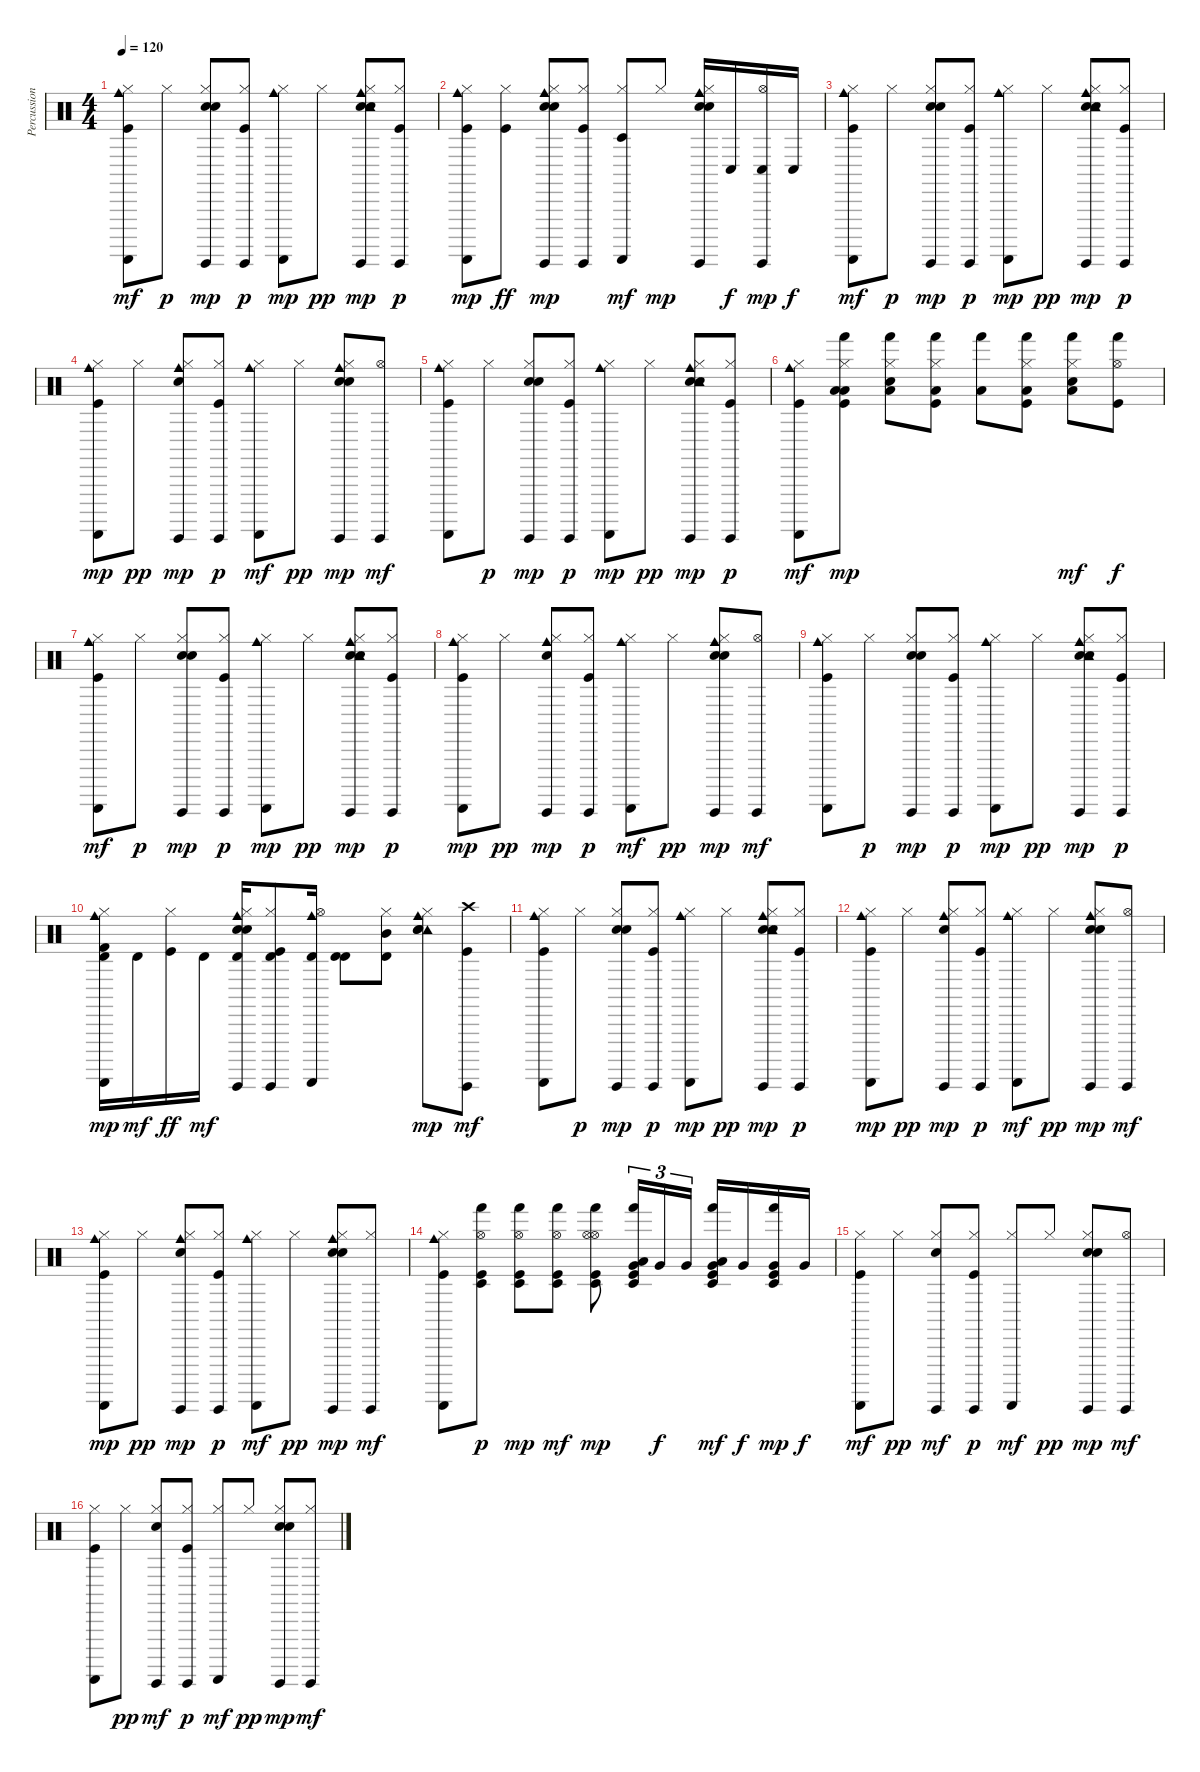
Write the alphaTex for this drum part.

\track ("Percussions" "Percussion") {instrument percussion}
\staff {score}
\articulation defaults
\ts (4 4)
\tempo 120
\clef neutral
\ks c
("Hi-Hat (closed)" "Guiro (scrap-return)" "Cowbell medium (hit)" "Kick (hit)").8{dy mf} "Hi-Hat (closed)".8{dy p} ("Hi-Hat (closed)" "Guiro (hit)" "Snare (hit) 2" "Hand Clap (hit)").8{dy mp} ("Hi-Hat (closed)" "Guiro (hit)" "Kick (hit)").8{dy p} ("Hi-Hat (closed)" "Guiro (scrap-return)" "Cowbell medium (hit)").8{dy mp} "Hi-Hat (closed)".8{dy pp} ("Hi-Hat (closed)" "Guiro (hit)" "Snare (hit) 2" "Hand Clap (hit)" "Cowbell medium (hit)" "Tambourine (hit)").8{dy mp} ("Hi-Hat (closed)" "Guiro (hit)" "Kick (hit)").8{dy p} |
("Hi-Hat (closed)" "Guiro (scrap-return)" "Cowbell medium (hit)" "Kick (hit)").8{dy mp} ("Hi-Hat (closed)" "Kick (hit)").8{dy ff} ("Hi-Hat (closed)" "Guiro (hit)" "Snare (hit) 2" "Hand Clap (hit)" "Cowbell medium (hit)").8{dy mp} ("Hi-Hat (closed)" "Guiro (hit)" "Kick (hit)").8 ("Hi-Hat (closed)" "Guiro (scrap-return)" "Timbale low (hit)").8{dy mf} "Hi-Hat (closed)".8{dy mp} ("Hi-Hat (closed)" "Guiro (hit)" "Snare (hit) 2" "Hand Clap (hit)" "Cowbell medium (hit)").16 "Conga low (hit)".16{dy f} ("Hi-Hat (open)" "Conga low (hit)" "Guiro (hit)").16{dy mp} "Conga low (hit)".16{dy f} |
("Hi-Hat (closed)" "Guiro (scrap-return)" "Cowbell medium (hit)" "Kick (hit)").8{dy mf} "Hi-Hat (closed)".8{dy p} ("Hi-Hat (closed)" "Guiro (hit)" "Snare (hit) 2" "Hand Clap (hit)").8{dy mp} ("Hi-Hat (closed)" "Guiro (hit)" "Kick (hit)").8{dy p} ("Hi-Hat (closed)" "Guiro (scrap-return)" "Cowbell medium (hit)").8{dy mp} "Hi-Hat (closed)".8{dy pp} ("Hi-Hat (closed)" "Guiro (hit)" "Snare (hit) 2" "Hand Clap (hit)" "Cowbell medium (hit)" "Tambourine (hit)").8{dy mp} ("Hi-Hat (closed)" "Guiro (hit)" "Kick (hit)").8{dy p} |
("Hi-Hat (closed)" "Guiro (scrap-return)" "Cowbell medium (hit)" "Kick (hit)").8{dy mp} "Hi-Hat (closed)".8{dy pp} ("Hi-Hat (closed)" "Guiro (hit)" "Snare (hit) 2" "Cowbell medium (hit)").8{dy mp} ("Hi-Hat (closed)" "Guiro (hit)" "Kick (hit)").8{dy p} ("Hi-Hat (closed)" "Guiro (scrap-return)" "Cowbell medium (hit)").8{dy mf} "Hi-Hat (closed)".8{dy pp} ("Hi-Hat (closed)" "Guiro (hit)" "Snare (hit) 2" "Cowbell medium (hit)" "Hand Clap (hit)").8{dy mp} ("Hi-Hat (open)" "Guiro (hit)").8{dy mf} |
("Hi-Hat (closed)" "Guiro (scrap-return)" "Cowbell medium (hit)" "Kick (hit)").8 "Hi-Hat (closed)".8{dy p} ("Hi-Hat (closed)" "Guiro (hit)" "Snare (hit) 2" "Hand Clap (hit)").8{dy mp} ("Hi-Hat (closed)" "Guiro (hit)" "Kick (hit)").8{dy p} ("Hi-Hat (closed)" "Guiro (scrap-return)" "Cowbell medium (hit)").8{dy mp} "Hi-Hat (closed)".8{dy pp} ("Hi-Hat (closed)" "Guiro (hit)" "Snare (hit) 2" "Hand Clap (hit)" "Cowbell medium (hit)" "Tambourine (hit)").8{dy mp} ("Hi-Hat (closed)" "Guiro (hit)" "Kick (hit)").8{dy p} |
("Hi-Hat (closed)" "Guiro (scrap-return)" "Cowbell medium (hit)" "Kick (hit)").8{dy mf} ("Hi-Hat (closed)" "Hand (hit)" "Low Tom (hit)" "Low Tom (hit)" "Kick (hit)").8{dy mp} ("Hi-Hat (closed)" "Hand (hit)" "Snare (hit) 2" "Low Tom (hit)").8 ("Hi-Hat (closed)" "Hand (hit)" "Low Tom (hit)" "Kick (hit)").8 ("Hand (hit)" "Low Tom (hit)").8 ("Hi-Hat (closed)" "Hand (hit)" "Low Tom (hit)" "Kick (hit)").8 ("Hi-Hat (closed)" "Hand (hit)" "Snare (hit) 2" "Low Tom (hit)").8{dy mf} ("Hi-Hat (open)" "Hand (hit)" "Kick (hit)").8{dy f} |
("Hi-Hat (closed)" "Guiro (scrap-return)" "Cowbell medium (hit)" "Kick (hit)").8{dy mf} "Hi-Hat (closed)".8{dy p} ("Hi-Hat (closed)" "Guiro (hit)" "Snare (hit) 2" "Hand Clap (hit)").8{dy mp} ("Hi-Hat (closed)" "Guiro (hit)" "Kick (hit)").8{dy p} ("Hi-Hat (closed)" "Guiro (scrap-return)" "Cowbell medium (hit)").8{dy mp} "Hi-Hat (closed)".8{dy pp} ("Hi-Hat (closed)" "Guiro (hit)" "Snare (hit) 2" "Hand Clap (hit)" "Cowbell medium (hit)" "Tambourine (hit)").8{dy mp} ("Hi-Hat (closed)" "Guiro (hit)" "Kick (hit)").8{dy p} |
("Hi-Hat (closed)" "Guiro (scrap-return)" "Cowbell medium (hit)" "Kick (hit)").8{dy mp} "Hi-Hat (closed)".8{dy pp} ("Hi-Hat (closed)" "Guiro (hit)" "Snare (hit) 2" "Cowbell medium (hit)").8{dy mp} ("Hi-Hat (closed)" "Guiro (hit)" "Kick (hit)").8{dy p} ("Hi-Hat (closed)" "Guiro (scrap-return)" "Cowbell medium (hit)").8{dy mf} "Hi-Hat (closed)".8{dy pp} ("Hi-Hat (closed)" "Guiro (hit)" "Snare (hit) 2" "Cowbell medium (hit)" "Hand Clap (hit)").8{dy mp} ("Hi-Hat (open)" "Guiro (hit)").8{dy mf} |
("Hi-Hat (closed)" "Guiro (scrap-return)" "Cowbell medium (hit)" "Kick (hit)").8 "Hi-Hat (closed)".8{dy p} ("Hi-Hat (closed)" "Guiro (hit)" "Snare (hit) 2" "Hand Clap (hit)").8{dy mp} ("Hi-Hat (closed)" "Guiro (hit)" "Kick (hit)").8{dy p} ("Hi-Hat (closed)" "Guiro (scrap-return)" "Cowbell medium (hit)").8{dy mp} "Hi-Hat (closed)".8{dy pp} ("Hi-Hat (closed)" "Guiro (hit)" "Snare (hit) 2" "Hand Clap (hit)" "Cowbell medium (hit)" "Tambourine (hit)").8{dy mp} ("Hi-Hat (closed)" "Guiro (hit)" "Kick (hit)").8{dy p} |
("Kick (hit) 2" "Hi-Hat (closed)" "Cowbell medium (hit)" "Guiro (scrap-return)" "Timbale high (hit)").16{dy mp} "Timbale high (hit)".16{dy mf} ("Hi-Hat (closed)" "Kick (hit)").16{dy ff} "Timbale high (hit)".16{dy mf} ("Hi-Hat (closed)" "Guiro (hit)" "Snare (hit) 2" "Hand Clap (hit)" "Timbale high (hit)" "Cowbell medium (hit)").16 ("Hi-Hat (closed)" "Guiro (hit)" "Timbale high (hit)" "Kick (hit)").8 ("Hi-Hat (open)" "Guiro (scrap-return)" "Timbale high (hit)" "Cowbell medium (hit)").16 ("Timbale high (hit)" "Timbale high (hit)").8 ("Hi-Hat (closed)" "Timbale high (hit)" "Mid Tom (hit)").8 ("Hi-Hat (closed)" "Tambourine (hit)" "Snare (hit) 2" "Hand Clap (hit)" "Cowbell medium (hit)").8{dy mp} ("Crash high (hit)" "Guiro (hit)" "Kick (hit)").8{dy mf} |
("Hi-Hat (closed)" "Guiro (scrap-return)" "Cowbell medium (hit)" "Kick (hit)").8 "Hi-Hat (closed)".8{dy p} ("Hi-Hat (closed)" "Guiro (hit)" "Snare (hit) 2" "Hand Clap (hit)").8{dy mp} ("Hi-Hat (closed)" "Guiro (hit)" "Kick (hit)").8{dy p} ("Hi-Hat (closed)" "Guiro (scrap-return)" "Cowbell medium (hit)").8{dy mp} "Hi-Hat (closed)".8{dy pp} ("Hi-Hat (closed)" "Guiro (hit)" "Snare (hit) 2" "Hand Clap (hit)" "Cowbell medium (hit)" "Tambourine (hit)").8{dy mp} ("Hi-Hat (closed)" "Guiro (hit)" "Kick (hit)").8{dy p} |
("Hi-Hat (closed)" "Guiro (scrap-return)" "Cowbell medium (hit)" "Kick (hit)").8{dy mp} "Hi-Hat (closed)".8{dy pp} ("Hi-Hat (closed)" "Guiro (hit)" "Snare (hit) 2" "Cowbell medium (hit)").8{dy mp} ("Hi-Hat (closed)" "Guiro (hit)" "Kick (hit)").8{dy p} ("Hi-Hat (closed)" "Guiro (scrap-return)" "Cowbell medium (hit)").8{dy mf} "Hi-Hat (closed)".8{dy pp} ("Hi-Hat (closed)" "Guiro (hit)" "Snare (hit) 2" "Cowbell medium (hit)" "Hand Clap (hit)").8{dy mp} ("Hi-Hat (open)" "Guiro (hit)").8{dy mf} |
("Hi-Hat (closed)" "Guiro (scrap-return)" "Cowbell medium (hit)" "Kick (hit)").8{dy mp} "Hi-Hat (closed)".8{dy pp} ("Hi-Hat (closed)" "Guiro (hit)" "Snare (hit) 2" "Cowbell medium (hit)").8{dy mp} ("Hi-Hat (closed)" "Guiro (hit)" "Kick (hit)").8{dy p} ("Hi-Hat (closed)" "Guiro (scrap-return)" "Cowbell medium (hit)").8{dy mf} "Hi-Hat (closed)".8{dy pp} ("Hi-Hat (closed)" "Guiro (hit)" "Snare (hit) 2" "Cowbell medium (hit)" "Hand Clap (hit)").8{dy mp} ("Hi-Hat (closed)" "Guiro (hit)").8{dy mf} |
("Hi-Hat (closed)" "Guiro (scrap-return)" "Cowbell medium (hit)" "Kick (hit)").8 ("Hi-Hat (open)" "Hand (hit)" "Timbale low (hit)" "Kick (hit)").8{dy p} ("Hi-Hat (open)" "Hand (hit)" "Timbale low (hit)" "Kick (hit)").8{dy mp} ("Hi-Hat (open)" "Hand (hit)" "Timbale low (hit)" "Kick (hit)").8{dy mf} ("Hi-Hat (open)" "Hand (hit)" "Timbale low (hit)" "Hi-Hat (open)" "Kick (hit)").8{dy mp} ("Hand (hit)" "Timbale low (hit)" "Low Tom (hit)" "Kick (hit)" "Very Low Tom (hit)").16{tu (3 2)} "Very Low Tom (hit)".16{tu (3 2) dy f} "Very Low Tom (hit)".16{tu (3 2)} ("Hand (hit)" "Timbale low (hit)" "Low Tom (hit)" "Kick (hit)" "Very Low Tom (hit)").16{dy mf} "Very Low Tom (hit)".16{dy f} ("Hand (hit)" "Timbale low (hit)" "Kick (hit)" "Very Low Tom (hit)").16{dy mp} "Very Low Tom (hit)".16{dy f} |
("Hi-Hat (closed)" "Guiro (scrap-return)" "Kick (hit)").8{dy mf} "Hi-Hat (closed)".8{dy pp} ("Hi-Hat (closed)" "Guiro (hit)" "Snare (hit) 2").8{dy mf} ("Hi-Hat (closed)" "Guiro (hit)" "Kick (hit)").8{dy p} ("Hi-Hat (closed)" "Guiro (scrap-return)").8{dy mf} "Hi-Hat (closed)".8{dy pp} ("Hi-Hat (closed)" "Guiro (hit)" "Snare (hit) 2" "Hand Clap (hit)").8{dy mp} ("Hi-Hat (open)" "Guiro (hit)").8{dy mf} |
("Hi-Hat (closed)" "Guiro (scrap-return)" "Kick (hit)").8 "Hi-Hat (closed)".8{dy pp} ("Hi-Hat (closed)" "Guiro (hit)" "Snare (hit) 2").8{dy mf} ("Hi-Hat (closed)" "Guiro (hit)" "Kick (hit)").8{dy p} ("Hi-Hat (closed)" "Guiro (scrap-return)").8{dy mf} "Hi-Hat (closed)".8{dy pp} ("Hi-Hat (closed)" "Guiro (hit)" "Snare (hit) 2" "Hand Clap (hit)").8{dy mp} ("Hi-Hat (closed)" "Guiro (hit)").8{dy mf}
